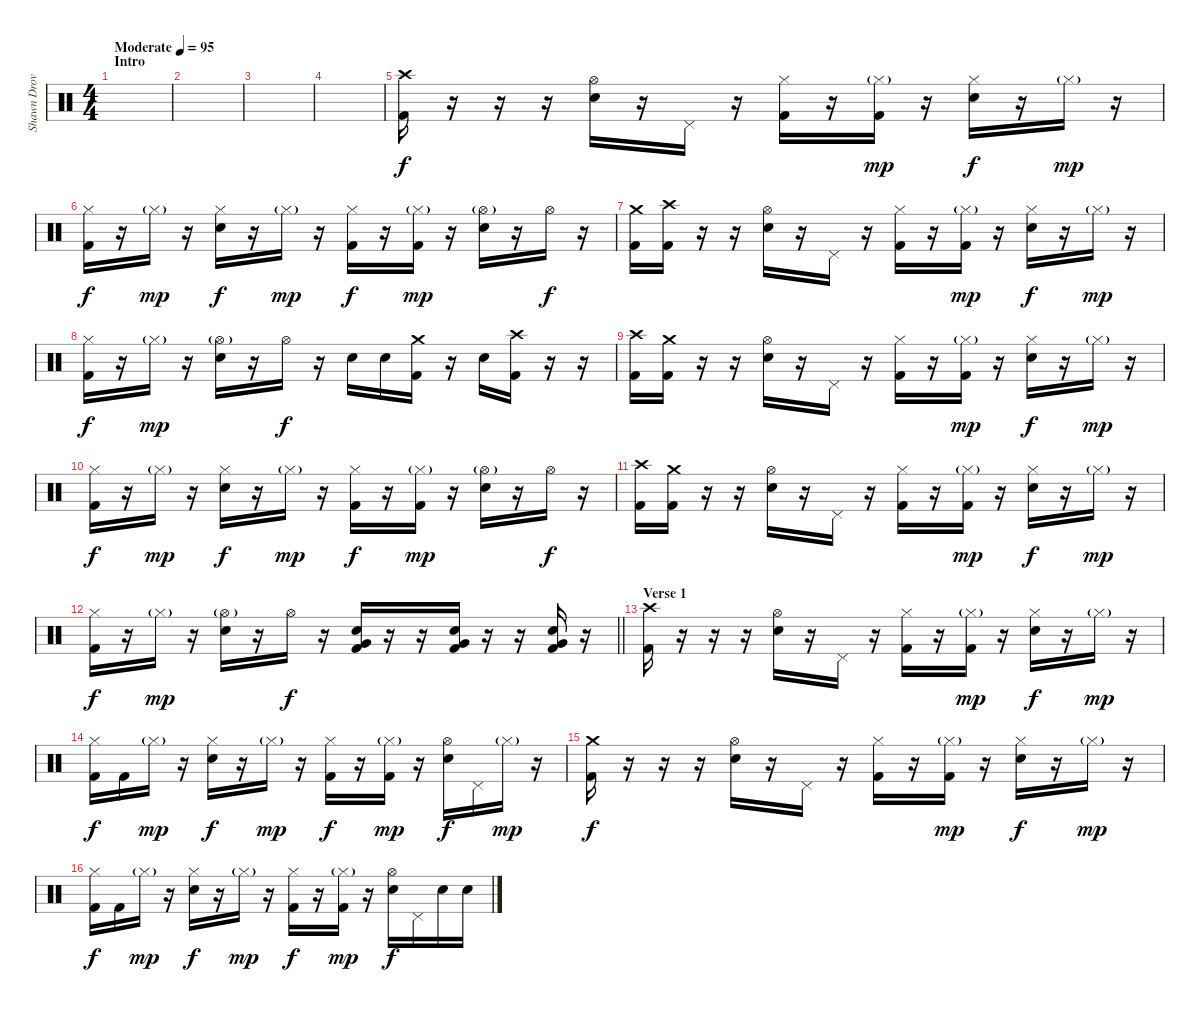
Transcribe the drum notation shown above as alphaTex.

\track ("Shawn Drover" "Shawn Drov") {instrument percussion}
\staff {score}
\articulation defaults
\ts (4 4)
\section ("" "Intro")
\tempo (95 "Moderate")
\clef neutral
\ks c
|
|
|
|
("Crash high (hit)" "Kick (hit) 2").16 r.16 r.16 r.16 ("Hi-Hat (open)" "Snare (hit) 2").16 r.16 "Pedal Hi-Hat (hit)".16 r.16 ("Hi-Hat (closed)" "Kick (hit) 2").16 r.16 ("Hi-Hat (closed)"{g} "Kick (hit) 2").16{dy mp} r.16 ("Hi-Hat (closed)" "Snare (hit) 2").16{dy f} r.16 "Hi-Hat (closed)"{g}.16{dy mp} r.16 |
("Hi-Hat (closed)" "Kick (hit) 2").16{dy f} r.16 "Hi-Hat (closed)"{g}.16{dy mp} r.16 ("Hi-Hat (closed)" "Snare (hit) 2").16{dy f} r.16 "Hi-Hat (closed)"{g}.16{dy mp} r.16 ("Hi-Hat (closed)" "Kick (hit) 2").16{dy f} r.16 ("Hi-Hat (closed)"{g} "Kick (hit) 2").16{dy mp} r.16 ("Hi-Hat (open)"{g} "Snare (hit) 2").16 r.16 "Hi-Hat (open)".16{dy f} r.16 |
("Crash medium (hit)" "Kick (hit) 2").16 ("Crash high (hit)" "Kick (hit) 2").16 r.16 r.16 ("Hi-Hat (open)" "Snare (hit) 2").16 r.16 "Pedal Hi-Hat (hit)".16 r.16 ("Hi-Hat (closed)" "Kick (hit) 2").16 r.16 ("Hi-Hat (closed)"{g} "Kick (hit) 2").16{dy mp} r.16 ("Hi-Hat (closed)" "Snare (hit) 2").16{dy f} r.16 "Hi-Hat (closed)"{g}.16{dy mp} r.16 |
("Hi-Hat (closed)" "Kick (hit) 2").16{dy f} r.16 "Hi-Hat (closed)"{g}.16{dy mp} r.16 ("Hi-Hat (open)"{g} "Snare (hit) 2").16 r.16 "Hi-Hat (open)".16{dy f} r.16 "Snare (hit) 2".16 "Snare (hit) 2".16 ("Crash medium (hit)" "Kick (hit) 2").16 r.16 "Snare (hit) 2".16 ("Crash high (hit)" "Kick (hit) 2").16 r.16 r.16 |
("Crash high (hit)" "Kick (hit) 2").16 ("Crash medium (hit)" "Kick (hit) 2").16 r.16 r.16 ("Hi-Hat (open)" "Snare (hit) 2").16 r.16 "Pedal Hi-Hat (hit)".16 r.16 ("Hi-Hat (closed)" "Kick (hit) 2").16 r.16 ("Hi-Hat (closed)"{g} "Kick (hit) 2").16{dy mp} r.16 ("Hi-Hat (closed)" "Snare (hit) 2").16{dy f} r.16 "Hi-Hat (closed)"{g}.16{dy mp} r.16 |
("Hi-Hat (closed)" "Kick (hit) 2").16{dy f} r.16 "Hi-Hat (closed)"{g}.16{dy mp} r.16 ("Hi-Hat (closed)" "Snare (hit) 2").16{dy f} r.16 "Hi-Hat (closed)"{g}.16{dy mp} r.16 ("Hi-Hat (closed)" "Kick (hit) 2").16{dy f} r.16 ("Hi-Hat (closed)"{g} "Kick (hit) 2").16{dy mp} r.16 ("Hi-Hat (open)"{g} "Snare (hit) 2").16 r.16 "Hi-Hat (open)".16{dy f} r.16 |
("Crash high (hit)" "Kick (hit) 2").16 ("Crash medium (hit)" "Kick (hit) 2").16 r.16 r.16 ("Hi-Hat (open)" "Snare (hit) 2").16 r.16 "Pedal Hi-Hat (hit)".16 r.16 ("Hi-Hat (closed)" "Kick (hit) 2").16 r.16 ("Hi-Hat (closed)"{g} "Kick (hit) 2").16{dy mp} r.16 ("Hi-Hat (closed)" "Snare (hit) 2").16{dy f} r.16 "Hi-Hat (closed)"{g}.16{dy mp} r.16 |
\barLineRight lightlight
("Hi-Hat (closed)" "Kick (hit) 2").16{dy f} r.16 "Hi-Hat (closed)"{g}.16{dy mp} r.16 ("Hi-Hat (open)"{g} "Snare (hit) 2").16 r.16 "Hi-Hat (open)".16{dy f} r.16 ("Very Low Tom (hit)" "Snare (hit) 2" "Kick (hit) 2").16 r.16 r.16 ("Very Low Tom (hit)" "Snare (hit) 2" "Kick (hit) 2").16 r.16 r.16 ("Very Low Tom (hit)" "Snare (hit) 2" "Kick (hit) 2").16 r.16 |
\section ("" "Verse 1")
("Crash high (hit)" "Kick (hit) 2").16 r.16 r.16 r.16 ("Hi-Hat (open)" "Snare (hit) 2").16 r.16 "Pedal Hi-Hat (hit)".16 r.16 ("Hi-Hat (closed)" "Kick (hit) 2").16 r.16 ("Hi-Hat (closed)"{g} "Kick (hit) 2").16{dy mp} r.16 ("Hi-Hat (closed)" "Snare (hit) 2").16{dy f} r.16 "Hi-Hat (closed)"{g}.16{dy mp} r.16 |
("Hi-Hat (closed)" "Kick (hit) 2").16{dy f} "Kick (hit) 2".16 "Hi-Hat (closed)"{g}.16{dy mp} r.16 ("Hi-Hat (closed)" "Snare (hit) 2").16{dy f} r.16 "Hi-Hat (closed)"{g}.16{dy mp} r.16 ("Hi-Hat (closed)" "Kick (hit) 2").16{dy f} r.16 ("Hi-Hat (closed)"{g} "Kick (hit) 2").16{dy mp} r.16 ("Hi-Hat (open)" "Snare (hit) 2").16{dy f} "Pedal Hi-Hat (hit)".16 "Hi-Hat (closed)"{g}.16{dy mp} r.16 |
("Crash medium (hit)" "Kick (hit) 2").16{dy f} r.16 r.16 r.16 ("Hi-Hat (open)" "Snare (hit) 2").16 r.16 "Pedal Hi-Hat (hit)".16 r.16 ("Hi-Hat (closed)" "Kick (hit) 2").16 r.16 ("Hi-Hat (closed)"{g} "Kick (hit) 2").16{dy mp} r.16 ("Hi-Hat (closed)" "Snare (hit) 2").16{dy f} r.16 "Hi-Hat (closed)"{g}.16{dy mp} r.16 |
("Hi-Hat (closed)" "Kick (hit) 2").16{dy f} "Kick (hit) 2".16 "Hi-Hat (closed)"{g}.16{dy mp} r.16 ("Hi-Hat (closed)" "Snare (hit) 2").16{dy f} r.16 "Hi-Hat (closed)"{g}.16{dy mp} r.16 ("Hi-Hat (closed)" "Kick (hit) 2").16{dy f} r.16 ("Hi-Hat (closed)"{g} "Kick (hit) 2").16{dy mp} r.16 ("Hi-Hat (open)" "Snare (hit) 2").16{dy f} "Pedal Hi-Hat (hit)".16 "Snare (hit) 2".16 "Snare (hit) 2".16
